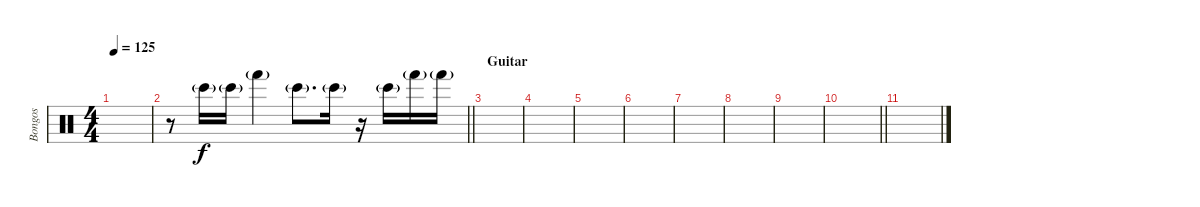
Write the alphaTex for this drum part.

\track ("Bongos" "Bongos") {instrument percussion}
\staff {score}
\articulation defaults
\ts (4 4)
\tempo 125
\clef neutral
\ks c
|
\barLineRight lightlight
r.8 "Bongo High (hit)"{g}.16 "Bongo High (hit)"{g}.16 "Hand (hit)"{g}.4 "Bongo High (hit)"{g}.8{d} "Bongo High (hit)"{g}.16 r.16 "Bongo High (hit)"{g}.16 "Hand (hit)"{g}.16 "Hand (hit)"{g}.16 |
\section ("" "Guitar")
|
|
|
|
|
|
|
\barLineRight lightlight
|
\section ("" "")
